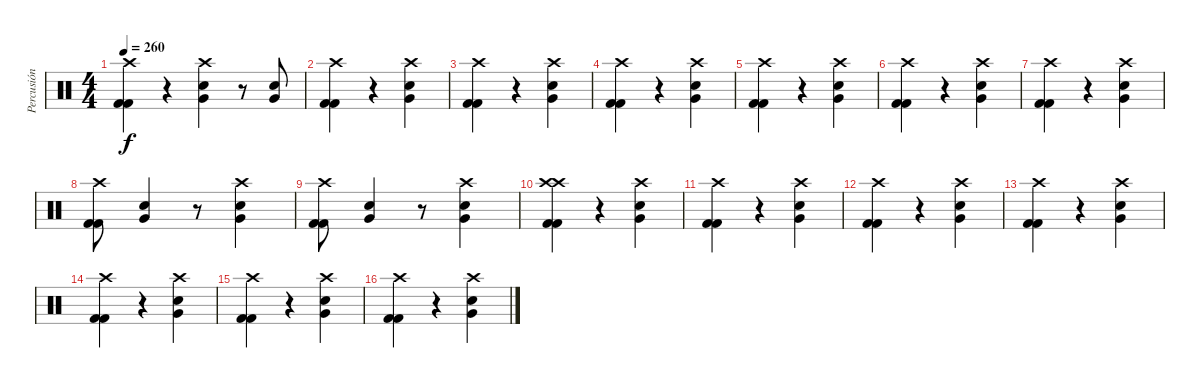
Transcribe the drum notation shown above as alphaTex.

\track ("Percusión" "Percusión") {instrument percussion}
\staff {score}
\articulation defaults
\ts (4 4)
\tempo 260
\clef neutral
\ks c
("Kick (hit) 2" "Kick (hit) 2" "Crash high (hit)").4{dy f} r.4 ("Very Low Tom (hit)" "Electric Snare (hit)" "Crash high (hit)").4 r.8 ("Very Low Tom (hit)" "Electric Snare (hit)").8 |
("Kick (hit) 2" "Kick (hit) 2" "Crash high (hit)").4 r.4 ("Very Low Tom (hit)" "Electric Snare (hit)" "Crash high (hit)").4 |
("Kick (hit) 2" "Kick (hit) 2" "Crash high (hit)").4 r.4 ("Very Low Tom (hit)" "Electric Snare (hit)" "Crash high (hit)").4 |
("Kick (hit) 2" "Kick (hit) 2" "Crash high (hit)").4 r.4 ("Very Low Tom (hit)" "Electric Snare (hit)" "Crash high (hit)").4 |
("Kick (hit) 2" "Kick (hit) 2" "Crash high (hit)").4 r.4 ("Very Low Tom (hit)" "Electric Snare (hit)" "Crash high (hit)").4 |
("Kick (hit) 2" "Kick (hit) 2" "Crash high (hit)").4 r.4 ("Very Low Tom (hit)" "Electric Snare (hit)" "Crash high (hit)").4 |
("Kick (hit) 2" "Kick (hit) 2" "Crash high (hit)").4 r.4 ("Very Low Tom (hit)" "Electric Snare (hit)" "Crash high (hit)").4 |
("Kick (hit) 2" "Kick (hit) 2" "Crash high (hit)").8 ("Very Low Tom (hit)" "Electric Snare (hit)").4 r.8 ("Very Low Tom (hit)" "Electric Snare (hit)" "Crash high (hit)").4 |
("Kick (hit) 2" "Kick (hit) 2" "Crash high (hit)").8 ("Very Low Tom (hit)" "Electric Snare (hit)").4 r.8 ("Very Low Tom (hit)" "Electric Snare (hit)" "Crash high (hit)").4 |
("Crash high (hit)" "Kick (hit) 2" "Kick (hit) 2" "Crash high (hit)").4 r.4 ("Very Low Tom (hit)" "Electric Snare (hit)" "Crash high (hit)").4 |
("Kick (hit) 2" "Kick (hit) 2" "Crash high (hit)").4 r.4 ("Very Low Tom (hit)" "Electric Snare (hit)" "Crash high (hit)").4 |
("Kick (hit) 2" "Kick (hit) 2" "Crash high (hit)").4 r.4 ("Very Low Tom (hit)" "Electric Snare (hit)" "Crash high (hit)").4 |
("Kick (hit) 2" "Kick (hit) 2" "Crash high (hit)").4 r.4 ("Very Low Tom (hit)" "Electric Snare (hit)" "Crash high (hit)").4 |
("Kick (hit) 2" "Kick (hit) 2" "Crash high (hit)").4 r.4 ("Very Low Tom (hit)" "Electric Snare (hit)" "Crash high (hit)").4 |
("Kick (hit) 2" "Kick (hit) 2" "Crash high (hit)").4 r.4 ("Very Low Tom (hit)" "Electric Snare (hit)" "Crash high (hit)").4 |
("Kick (hit) 2" "Kick (hit) 2" "Crash high (hit)").4 r.4 ("Very Low Tom (hit)" "Electric Snare (hit)" "Crash high (hit)").4
